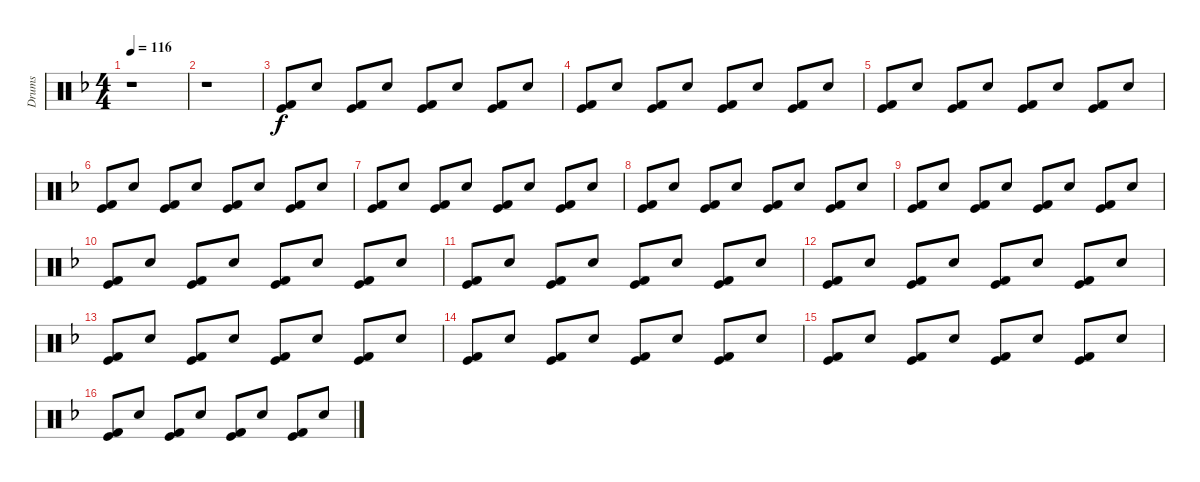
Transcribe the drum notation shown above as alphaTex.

\track ("Drums" "Drums") {instrument percussion}
\staff {score}
\articulation defaults
\ts (4 4)
\tempo 116
\clef neutral
\ks f
r.1{dy f} |
r.1 |
("Kick (hit)" "Kick (hit) 2").8 "Snare (hit) 2".8 ("Kick (hit)" "Kick (hit) 2").8 "Snare (hit) 2".8 ("Kick (hit)" "Kick (hit) 2").8 "Snare (hit) 2".8 ("Kick (hit)" "Kick (hit) 2").8 "Snare (hit) 2".8 |
("Kick (hit)" "Kick (hit) 2").8 "Snare (hit) 2".8 ("Kick (hit)" "Kick (hit) 2").8 "Snare (hit) 2".8 ("Kick (hit)" "Kick (hit) 2").8 "Snare (hit) 2".8 ("Kick (hit)" "Kick (hit) 2").8 "Snare (hit) 2".8 |
("Kick (hit)" "Kick (hit) 2").8 "Snare (hit) 2".8 ("Kick (hit)" "Kick (hit) 2").8 "Snare (hit) 2".8 ("Kick (hit)" "Kick (hit) 2").8 "Snare (hit) 2".8 ("Kick (hit)" "Kick (hit) 2").8 "Snare (hit) 2".8 |
("Kick (hit)" "Kick (hit) 2").8 "Snare (hit) 2".8 ("Kick (hit)" "Kick (hit) 2").8 "Snare (hit) 2".8 ("Kick (hit)" "Kick (hit) 2").8 "Snare (hit) 2".8 ("Kick (hit)" "Kick (hit) 2").8 "Snare (hit) 2".8 |
("Kick (hit)" "Kick (hit) 2").8 "Snare (hit) 2".8 ("Kick (hit)" "Kick (hit) 2").8 "Snare (hit) 2".8 ("Kick (hit)" "Kick (hit) 2").8 "Snare (hit) 2".8 ("Kick (hit)" "Kick (hit) 2").8 "Snare (hit) 2".8 |
("Kick (hit)" "Kick (hit) 2").8 "Snare (hit) 2".8 ("Kick (hit)" "Kick (hit) 2").8 "Snare (hit) 2".8 ("Kick (hit)" "Kick (hit) 2").8 "Snare (hit) 2".8 ("Kick (hit)" "Kick (hit) 2").8 "Snare (hit) 2".8 |
("Kick (hit)" "Kick (hit) 2").8 "Snare (hit) 2".8 ("Kick (hit)" "Kick (hit) 2").8 "Snare (hit) 2".8 ("Kick (hit)" "Kick (hit) 2").8 "Snare (hit) 2".8 ("Kick (hit)" "Kick (hit) 2").8 "Snare (hit) 2".8 |
("Kick (hit)" "Kick (hit) 2").8 "Snare (hit) 2".8 ("Kick (hit)" "Kick (hit) 2").8 "Snare (hit) 2".8 ("Kick (hit)" "Kick (hit) 2").8 "Snare (hit) 2".8 ("Kick (hit)" "Kick (hit) 2").8 "Snare (hit) 2".8 |
("Kick (hit)" "Kick (hit) 2").8 "Snare (hit) 2".8 ("Kick (hit)" "Kick (hit) 2").8 "Snare (hit) 2".8 ("Kick (hit)" "Kick (hit) 2").8 "Snare (hit) 2".8 ("Kick (hit)" "Kick (hit) 2").8 "Snare (hit) 2".8 |
("Kick (hit)" "Kick (hit) 2").8 "Snare (hit) 2".8 ("Kick (hit)" "Kick (hit) 2").8 "Snare (hit) 2".8 ("Kick (hit)" "Kick (hit) 2").8 "Snare (hit) 2".8 ("Kick (hit)" "Kick (hit) 2").8 "Snare (hit) 2".8 |
("Kick (hit)" "Kick (hit) 2").8 "Snare (hit) 2".8 ("Kick (hit)" "Kick (hit) 2").8 "Snare (hit) 2".8 ("Kick (hit)" "Kick (hit) 2").8 "Snare (hit) 2".8 ("Kick (hit)" "Kick (hit) 2").8 "Snare (hit) 2".8 |
("Kick (hit)" "Kick (hit) 2").8 "Snare (hit) 2".8 ("Kick (hit)" "Kick (hit) 2").8 "Snare (hit) 2".8 ("Kick (hit)" "Kick (hit) 2").8 "Snare (hit) 2".8 ("Kick (hit)" "Kick (hit) 2").8 "Snare (hit) 2".8 |
("Kick (hit)" "Kick (hit) 2").8 "Snare (hit) 2".8 ("Kick (hit)" "Kick (hit) 2").8 "Snare (hit) 2".8 ("Kick (hit)" "Kick (hit) 2").8 "Snare (hit) 2".8 ("Kick (hit)" "Kick (hit) 2").8 "Snare (hit) 2".8 |
("Kick (hit)" "Kick (hit) 2").8 "Snare (hit) 2".8 ("Kick (hit)" "Kick (hit) 2").8 "Snare (hit) 2".8 ("Kick (hit)" "Kick (hit) 2").8 "Snare (hit) 2".8 ("Kick (hit)" "Kick (hit) 2").8 "Snare (hit) 2".8
